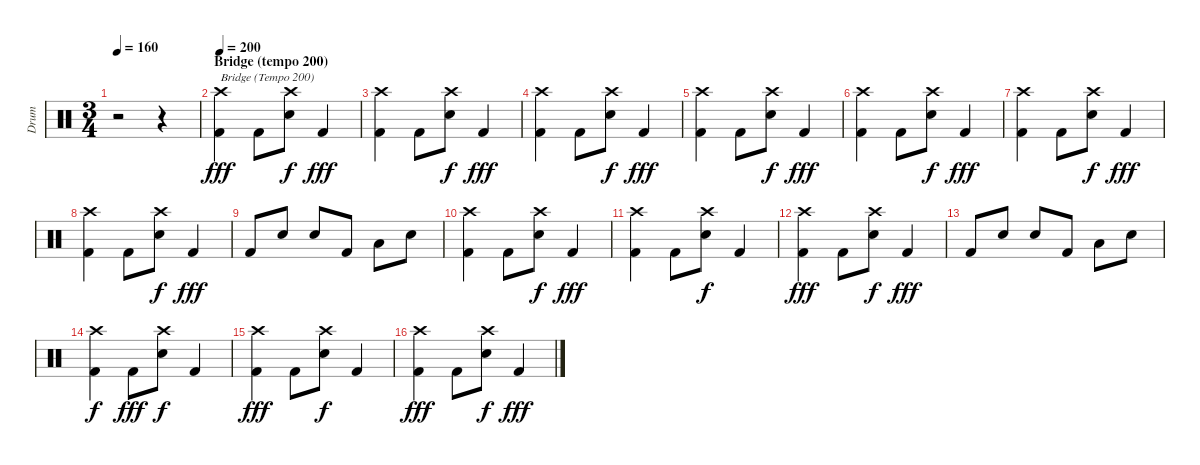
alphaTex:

\track ("Drum" "Drum") {instrument percussion}
\staff {score}
\articulation defaults
\ts (3 4)
\tempo 160
\clef neutral
\ks c
r.2{dy fff} r.4 |
\section ("" "Bridge (tempo 200)")
\tempo 200
("Crash high (hit)" "Kick (hit) 2").4{txt "Bridge (Tempo 200)"} "Kick (hit) 2".8 ("Crash high (hit)" "Snare (hit) 2").8{dy f} "Kick (hit) 2".4{dy fff} |
("Crash high (hit)" "Kick (hit) 2").4 "Kick (hit) 2".8 ("Crash high (hit)" "Snare (hit) 2").8{dy f} "Kick (hit) 2".4{dy fff} |
("Crash high (hit)" "Kick (hit) 2").4 "Kick (hit) 2".8 ("Crash high (hit)" "Snare (hit) 2").8{dy f} "Kick (hit) 2".4{dy fff} |
("Crash high (hit)" "Kick (hit) 2").4 "Kick (hit) 2".8 ("Crash high (hit)" "Snare (hit) 2").8{dy f} "Kick (hit) 2".4{dy fff} |
("Crash high (hit)" "Kick (hit) 2").4 "Kick (hit) 2".8 ("Crash high (hit)" "Snare (hit) 2").8{dy f} "Kick (hit) 2".4{dy fff} |
("Crash high (hit)" "Kick (hit) 2").4 "Kick (hit) 2".8 ("Crash high (hit)" "Snare (hit) 2").8{dy f} "Kick (hit) 2".4{dy fff} |
("Crash high (hit)" "Kick (hit) 2").4 "Kick (hit) 2".8 ("Crash high (hit)" "Snare (hit) 2").8{dy f} "Kick (hit) 2".4{dy fff} |
"Kick (hit) 2".8 "Snare (hit) 2".8 "Snare (hit) 2".8 "Kick (hit) 2".8 "Low Tom (hit)".8 "Snare (hit) 2".8 |
("Crash high (hit)" "Kick (hit) 2").4 "Kick (hit) 2".8 ("Crash high (hit)" "Snare (hit) 2").8{dy f} "Kick (hit) 2".4{dy fff} |
("Crash high (hit)" "Kick (hit) 2").4 "Kick (hit) 2".8 ("Crash high (hit)" "Snare (hit) 2").8{dy f} "Kick (hit) 2".4 |
("Crash high (hit)" "Kick (hit) 2").4{dy fff} "Kick (hit) 2".8 ("Crash high (hit)" "Snare (hit) 2").8{dy f} "Kick (hit) 2".4{dy fff} |
"Kick (hit) 2".8 "Snare (hit) 2".8 "Snare (hit) 2".8 "Kick (hit) 2".8 "Low Tom (hit)".8 "Snare (hit) 2".8 |
("Crash high (hit)" "Kick (hit) 2").4{dy f} "Kick (hit) 2".8{dy fff} ("Crash high (hit)" "Snare (hit) 2").8{dy f} "Kick (hit) 2".4 |
("Crash high (hit)" "Kick (hit) 2").4{dy fff} "Kick (hit) 2".8 ("Crash high (hit)" "Snare (hit) 2").8{dy f} "Kick (hit) 2".4 |
("Crash high (hit)" "Kick (hit) 2").4{dy fff} "Kick (hit) 2".8 ("Crash high (hit)" "Snare (hit) 2").8{dy f} "Kick (hit) 2".4{dy fff}
